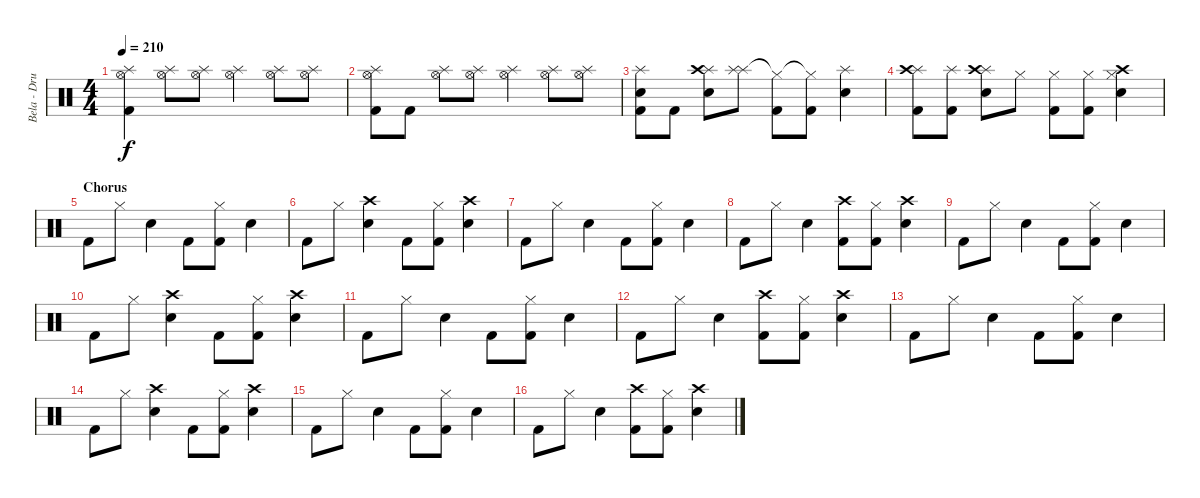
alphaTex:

\track ("Bela - Drums" "Bela - Dru") {instrument percussion}
\staff {score}
\articulation defaults
\ts (4 4)
\tempo 210
\clef neutral
\ks c
("Hi-Hat (open)" "Splash (hit)" "Kick (hit) 2").4{dy f} ("Hi-Hat (open)" "Splash (hit)").8 ("Hi-Hat (open)" "Splash (hit)").8 ("Hi-Hat (open)" "Splash (hit)").4 ("Hi-Hat (open)" "Splash (hit)").8 ("Hi-Hat (open)" "Splash (hit)").8 |
("Hi-Hat (open)" "Splash (hit)" "Kick (hit) 2").8 "Kick (hit) 2".8 ("Hi-Hat (open)" "Splash (hit)").8 ("Hi-Hat (open)" "Splash (hit)").8 ("Hi-Hat (open)" "Splash (hit)").4 ("Hi-Hat (open)" "Splash (hit)").8 ("Hi-Hat (open)" "Splash (hit)").8 |
("Splash (hit)" "Electric Snare (hit)" "Kick (hit) 2").8 "Kick (hit) 2".8 ("Splash (hit)" "Crash high (hit)" "Electric Snare (hit)").8 ("Splash (hit)" "Splash (hit)").8 ("Hi-Hat (closed)"{t} "Kick (hit) 2").8 ("Hi-Hat (closed)"{t} "Kick (hit) 2").8 ("Splash (hit)" "Electric Snare (hit)").4 |
("Splash (hit)" "Crash high (hit)" "Kick (hit) 2").8 ("Splash (hit)" "Kick (hit) 2").8 ("Splash (hit)" "Crash high (hit)" "Electric Snare (hit)").8 "Hi-Hat (closed)".8 ("Hi-Hat (closed)" "Kick (hit) 2").8 ("Hi-Hat (closed)" "Kick (hit) 2").8 ("Hi-Hat (closed)" "Crash high (hit)" "Electric Snare (hit)").4 |
\section ("" "Chorus")
"Kick (hit) 2".8 "Hi-Hat (closed)".8 "Electric Snare (hit)".4 "Kick (hit) 2".8 ("Hi-Hat (closed)" "Kick (hit) 2").8 "Electric Snare (hit)".4 |
"Kick (hit) 2".8 "Hi-Hat (closed)".8 ("Crash high (hit)" "Electric Snare (hit)").4 "Kick (hit) 2".8 ("Hi-Hat (closed)" "Kick (hit) 2").8 ("Crash high (hit)" "Electric Snare (hit)").4 |
"Kick (hit) 2".8 "Hi-Hat (closed)".8 "Electric Snare (hit)".4 "Kick (hit) 2".8 ("Hi-Hat (closed)" "Kick (hit) 2").8 "Electric Snare (hit)".4 |
"Kick (hit) 2".8 "Hi-Hat (closed)".8 "Electric Snare (hit)".4 ("Crash high (hit)" "Kick (hit) 2").8 ("Hi-Hat (closed)" "Kick (hit) 2").8 ("Crash high (hit)" "Electric Snare (hit)").4 |
"Kick (hit) 2".8 "Hi-Hat (closed)".8 "Electric Snare (hit)".4 "Kick (hit) 2".8 ("Hi-Hat (closed)" "Kick (hit) 2").8 "Electric Snare (hit)".4 |
"Kick (hit) 2".8 "Hi-Hat (closed)".8 ("Crash high (hit)" "Electric Snare (hit)").4 "Kick (hit) 2".8 ("Hi-Hat (closed)" "Kick (hit) 2").8 ("Crash high (hit)" "Electric Snare (hit)").4 |
"Kick (hit) 2".8 "Hi-Hat (closed)".8 "Electric Snare (hit)".4 "Kick (hit) 2".8 ("Hi-Hat (closed)" "Kick (hit) 2").8 "Electric Snare (hit)".4 |
"Kick (hit) 2".8 "Hi-Hat (closed)".8 "Electric Snare (hit)".4 ("Crash high (hit)" "Kick (hit) 2").8 ("Hi-Hat (closed)" "Kick (hit) 2").8 ("Crash high (hit)" "Electric Snare (hit)").4 |
"Kick (hit) 2".8 "Hi-Hat (closed)".8 "Electric Snare (hit)".4 "Kick (hit) 2".8 ("Hi-Hat (closed)" "Kick (hit) 2").8 "Electric Snare (hit)".4 |
"Kick (hit) 2".8 "Hi-Hat (closed)".8 ("Crash high (hit)" "Electric Snare (hit)").4 "Kick (hit) 2".8 ("Hi-Hat (closed)" "Kick (hit) 2").8 ("Crash high (hit)" "Electric Snare (hit)").4 |
"Kick (hit) 2".8 "Hi-Hat (closed)".8 "Electric Snare (hit)".4 "Kick (hit) 2".8 ("Hi-Hat (closed)" "Kick (hit) 2").8 "Electric Snare (hit)".4 |
"Kick (hit) 2".8 "Hi-Hat (closed)".8 "Electric Snare (hit)".4 ("Crash high (hit)" "Kick (hit) 2").8 ("Hi-Hat (closed)" "Kick (hit) 2").8 ("Crash high (hit)" "Electric Snare (hit)").4
